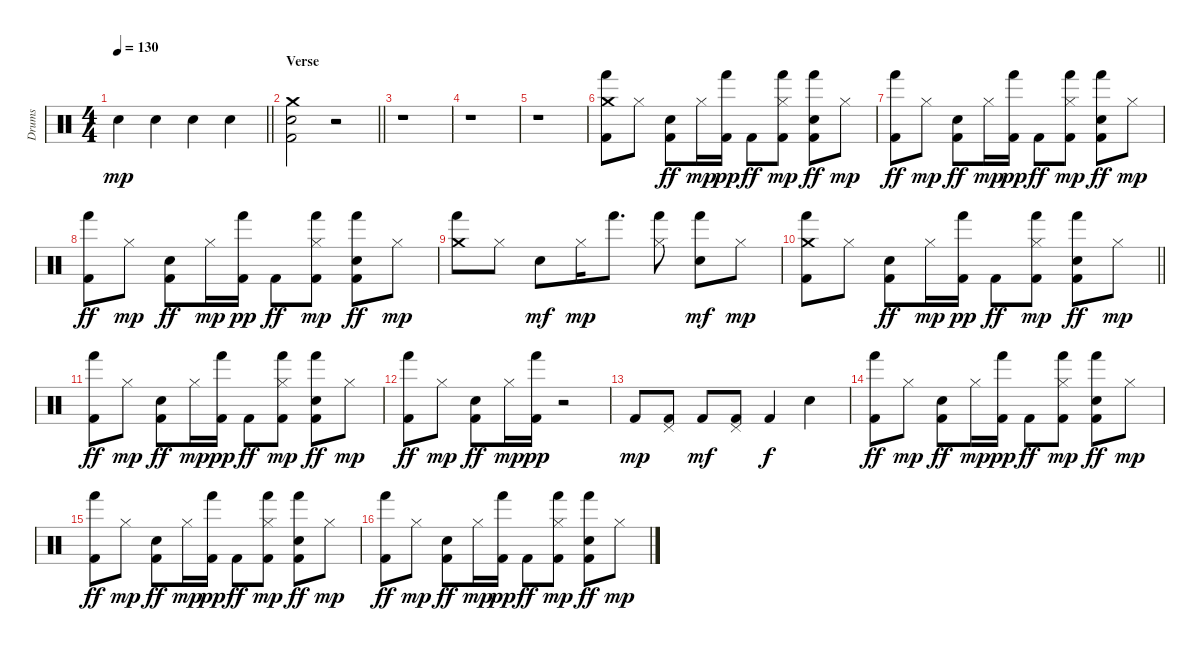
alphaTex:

\track ("Drums" "Drums") {instrument percussion}
\staff {score}
\articulation defaults
\ts (4 4)
\tempo 130
\clef neutral
\barLineRight lightlight
\ks c "Hand Clap (hit)".4{dy mp} "Hand Clap (hit)".4 "Hand Clap (hit)".4 "Hand Clap (hit)".4
|
\section ("" "Verse")
\barLineRight lightlight
("Kick (hit) 2" "Hand Clap (hit)" "Crash medium (hit)").2 r.2 |
r.1 |
r.1 |
r.1 |
("Hand (hit)" "Kick (hit) 2" "Crash medium (hit)").8 "Hi-Hat (closed)".8 ("Hand Clap (hit)" "Kick (hit) 2").8{dy ff} "Hi-Hat (closed)".16{dy mp} ("Hand (hit)" "Kick (hit) 2").16{dy pp} "Kick (hit) 2".8{dy ff} ("Hand (hit)" "Kick (hit) 2" "Hi-Hat (closed)").8{dy mp} ("Hand (hit)" "Hand Clap (hit)" "Kick (hit) 2").8{dy ff} "Hi-Hat (closed)".8{dy mp} |
("Hand (hit)" "Kick (hit) 2").8{dy ff} "Hi-Hat (closed)".8{dy mp} ("Hand Clap (hit)" "Kick (hit) 2").8{dy ff} "Hi-Hat (closed)".16{dy mp} ("Hand (hit)" "Kick (hit) 2").16{dy pp} "Kick (hit) 2".8{dy ff} ("Hand (hit)" "Kick (hit) 2" "Hi-Hat (closed)").8{dy mp} ("Hand (hit)" "Hand Clap (hit)" "Kick (hit) 2").8{dy ff} "Hi-Hat (closed)".8{dy mp} |
("Hand (hit)" "Kick (hit) 2").8{dy ff} "Hi-Hat (closed)".8{dy mp} ("Hand Clap (hit)" "Kick (hit) 2").8{dy ff} "Hi-Hat (closed)".16{dy mp} ("Hand (hit)" "Kick (hit) 2").16{dy pp} "Kick (hit) 2".8{dy ff} ("Hand (hit)" "Kick (hit) 2" "Hi-Hat (closed)").8{dy mp} ("Hand (hit)" "Hand Clap (hit)" "Kick (hit) 2").8{dy ff} "Hi-Hat (closed)".8{dy mp} |
("Hand (hit)" "Crash medium (hit)").8 "Hi-Hat (closed)".8 "Hand Clap (hit)".8{dy mf} "Hi-Hat (closed)".16{dy mp} "Hand (hit)".8{d} ("Hand (hit)" "Hi-Hat (closed)").8 ("Hand (hit)" "Hand Clap (hit)").8{dy mf} "Hi-Hat (closed)".8{dy mp} |
\barLineRight lightlight
("Hand (hit)" "Kick (hit) 2" "Crash medium (hit)").8 "Hi-Hat (closed)".8 ("Hand Clap (hit)" "Kick (hit) 2").8{dy ff} "Hi-Hat (closed)".16{dy mp} ("Hand (hit)" "Kick (hit) 2").16{dy pp} "Kick (hit) 2".8{dy ff} ("Hand (hit)" "Kick (hit) 2" "Hi-Hat (closed)").8{dy mp} ("Hand (hit)" "Hand Clap (hit)" "Kick (hit) 2").8{dy ff} "Hi-Hat (closed)".8{dy mp} |
("Hand (hit)" "Kick (hit) 2").8{dy ff} "Hi-Hat (closed)".8{dy mp} ("Hand Clap (hit)" "Kick (hit) 2").8{dy ff} "Hi-Hat (closed)".16{dy mp} ("Hand (hit)" "Kick (hit) 2").16{dy pp} "Kick (hit) 2".8{dy ff} ("Hand (hit)" "Kick (hit) 2" "Hi-Hat (closed)").8{dy mp} ("Hand (hit)" "Hand Clap (hit)" "Kick (hit) 2").8{dy ff} "Hi-Hat (closed)".8{dy mp} |
("Hand (hit)" "Kick (hit) 2").8{dy ff} "Hi-Hat (closed)".8{dy mp} ("Hand Clap (hit)" "Kick (hit) 2").8{dy ff} "Hi-Hat (closed)".16{dy mp} ("Hand (hit)" "Kick (hit) 2").16{dy pp} r.2 |
"Kick (hit) 2".8{dy mp} ("Pedal Hi-Hat (hit)" "Kick (hit) 2").8 "Kick (hit) 2".8{dy mf} ("Pedal Hi-Hat (hit)" "Kick (hit) 2").8 "Kick (hit) 2".4{dy f} "Hand Clap (hit)".4 |
("Hand (hit)" "Kick (hit) 2").8{dy ff} "Hi-Hat (closed)".8{dy mp} ("Hand Clap (hit)" "Kick (hit) 2").8{dy ff} "Hi-Hat (closed)".16{dy mp} ("Hand (hit)" "Kick (hit) 2").16{dy pp} "Kick (hit) 2".8{dy ff} ("Hand (hit)" "Kick (hit) 2" "Hi-Hat (closed)").8{dy mp} ("Hand (hit)" "Hand Clap (hit)" "Kick (hit) 2").8{dy ff} "Hi-Hat (closed)".8{dy mp} |
("Hand (hit)" "Kick (hit) 2").8{dy ff} "Hi-Hat (closed)".8{dy mp} ("Hand Clap (hit)" "Kick (hit) 2").8{dy ff} "Hi-Hat (closed)".16{dy mp} ("Hand (hit)" "Kick (hit) 2").16{dy pp} "Kick (hit) 2".8{dy ff} ("Hand (hit)" "Kick (hit) 2" "Hi-Hat (closed)").8{dy mp} ("Hand (hit)" "Hand Clap (hit)" "Kick (hit) 2").8{dy ff} "Hi-Hat (closed)".8{dy mp} |
("Hand (hit)" "Kick (hit) 2").8{dy ff} "Hi-Hat (closed)".8{dy mp} ("Hand Clap (hit)" "Kick (hit) 2").8{dy ff} "Hi-Hat (closed)".16{dy mp} ("Hand (hit)" "Kick (hit) 2").16{dy pp} "Kick (hit) 2".8{dy ff} ("Hand (hit)" "Kick (hit) 2" "Hi-Hat (closed)").8{dy mp} ("Hand (hit)" "Hand Clap (hit)" "Kick (hit) 2").8{dy ff} "Hi-Hat (closed)".8{dy mp}
